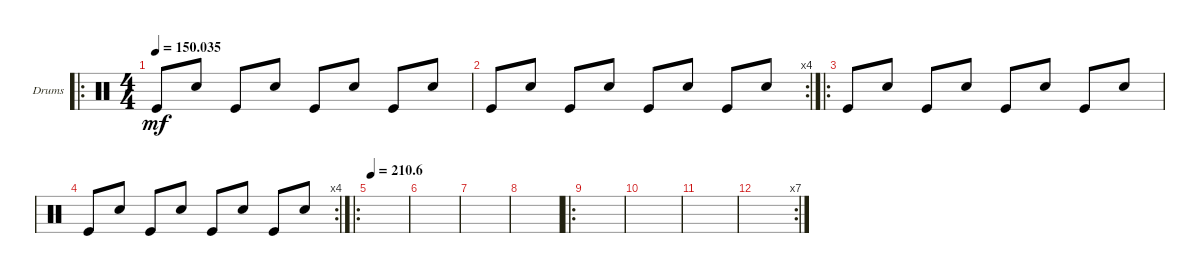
\defaultSystemsLayout 4
\bracketExtendMode groupsimilarinstruments
\firstSystemTrackNameOrientation horizontal
\otherSystemsTrackNameOrientation horizontal
\track ("Drumkit" "Drums") {instrument percussion}
\staff {score}
\articulation defaults
\ro
\ts (4 4)
\tempo
150.035
\accidentals auto
\clef neutral
\ottava regular
\simile none
\scale
0.354167
\ks c "Kick (hit)".8{dy mf} "Snare (hit) 2".8 "Kick (hit)".8 "Snare (hit) 2".8 "Kick (hit)".8 "Snare (hit) 2".8 "Kick (hit)".8 "Snare (hit) 2".8
|
\rc 4
\scale
0.322917 "Kick (hit)".8 "Snare (hit) 2".8 "Kick (hit)".8 "Snare (hit) 2".8 "Kick (hit)".8 "Snare (hit) 2".8 "Kick (hit)".8 "Snare (hit) 2".8 |
\ro "Kick (hit)".8 "Snare (hit) 2".8 "Kick (hit)".8 "Snare (hit) 2".8 "Kick (hit)".8 "Snare (hit) 2".8 "Kick (hit)".8 "Snare (hit) 2".8
|
\rc 4 "Kick (hit)".8 "Snare (hit) 2".8 "Kick (hit)".8 "Snare (hit) 2".8 "Kick (hit)".8 "Snare (hit) 2".8 "Kick (hit)".8 "Snare (hit) 2".8
|
\ro
\tempo
210.6 |
|
|
|
\ro
|
|
|
\rc 7
